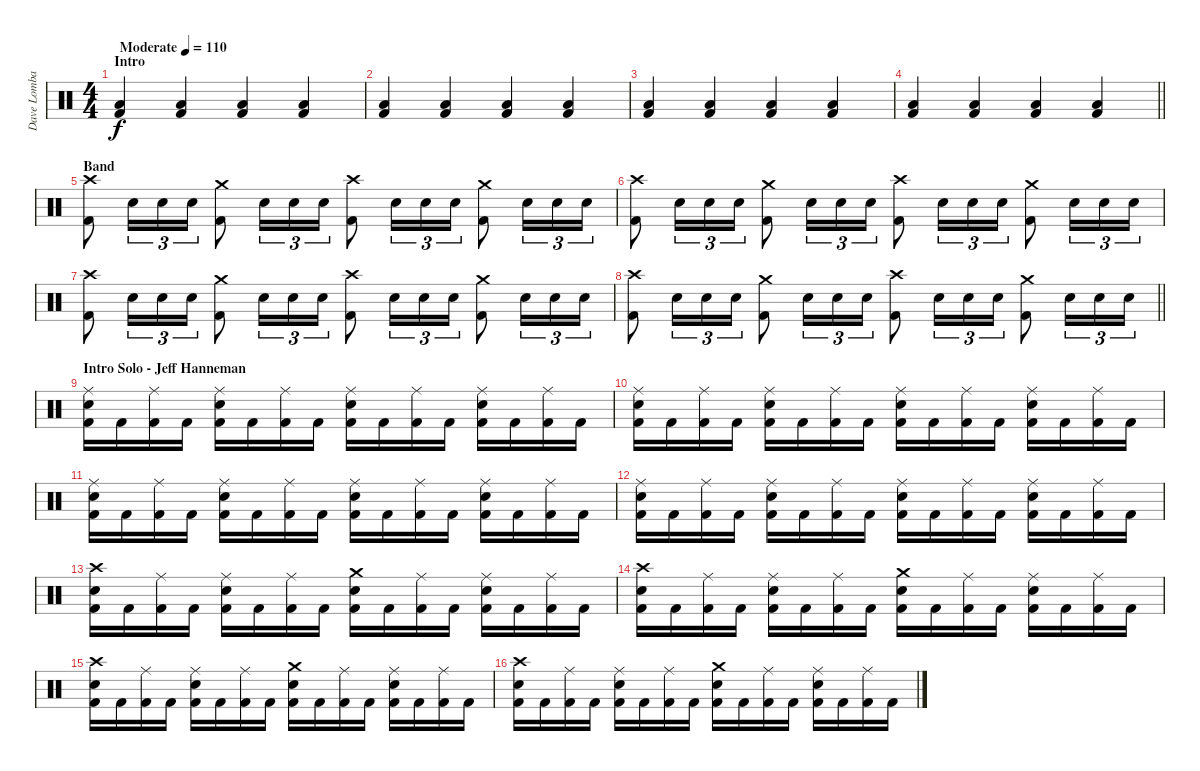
\track ("Dave Lombardo (Drums)" "Dave Lomba") {instrument percussion}
\staff {score}
\articulation defaults
\ts (4 4)
\section ("" "Intro")
\tempo (110 "Moderate")
\clef neutral
\ks c
("Low Tom (hit)" "Kick (hit) 2").4{dy f} ("Low Tom (hit)" "Kick (hit) 2").4 ("Low Tom (hit)" "Kick (hit) 2").4 ("Low Tom (hit)" "Kick (hit) 2").4 |
("Low Tom (hit)" "Kick (hit) 2").4 ("Low Tom (hit)" "Kick (hit) 2").4 ("Low Tom (hit)" "Kick (hit) 2").4 ("Low Tom (hit)" "Kick (hit) 2").4 |
("Low Tom (hit)" "Kick (hit) 2").4 ("Low Tom (hit)" "Kick (hit) 2").4 ("Low Tom (hit)" "Kick (hit) 2").4 ("Low Tom (hit)" "Kick (hit) 2").4 |
\barLineRight lightlight
("Low Tom (hit)" "Kick (hit) 2").4 ("Low Tom (hit)" "Kick (hit) 2").4 ("Low Tom (hit)" "Kick (hit) 2").4 ("Low Tom (hit)" "Kick (hit) 2").4 |
\section ("" "Band ")
("Crash high (hit)" "Kick (hit) 2").8 "Snare (hit) 2".16{tu (3 2)} "Snare (hit) 2".16{tu (3 2)} "Snare (hit) 2".16{tu (3 2)} ("Crash medium (hit)" "Kick (hit) 2").8 "Snare (hit) 2".16{tu (3 2)} "Snare (hit) 2".16{tu (3 2)} "Snare (hit) 2".16{tu (3 2)} ("Crash high (hit)" "Kick (hit) 2").8 "Snare (hit) 2".16{tu (3 2)} "Snare (hit) 2".16{tu (3 2)} "Snare (hit) 2".16{tu (3 2)} ("Crash medium (hit)" "Kick (hit) 2").8 "Snare (hit) 2".16{tu (3 2)} "Snare (hit) 2".16{tu (3 2)} "Snare (hit) 2".16{tu (3 2)} |
("Crash high (hit)" "Kick (hit) 2").8 "Snare (hit) 2".16{tu (3 2)} "Snare (hit) 2".16{tu (3 2)} "Snare (hit) 2".16{tu (3 2)} ("Crash medium (hit)" "Kick (hit) 2").8 "Snare (hit) 2".16{tu (3 2)} "Snare (hit) 2".16{tu (3 2)} "Snare (hit) 2".16{tu (3 2)} ("Crash high (hit)" "Kick (hit) 2").8 "Snare (hit) 2".16{tu (3 2)} "Snare (hit) 2".16{tu (3 2)} "Snare (hit) 2".16{tu (3 2)} ("Crash medium (hit)" "Kick (hit) 2").8 "Snare (hit) 2".16{tu (3 2)} "Snare (hit) 2".16{tu (3 2)} "Snare (hit) 2".16{tu (3 2)} |
("Crash high (hit)" "Kick (hit) 2").8 "Snare (hit) 2".16{tu (3 2)} "Snare (hit) 2".16{tu (3 2)} "Snare (hit) 2".16{tu (3 2)} ("Crash medium (hit)" "Kick (hit) 2").8 "Snare (hit) 2".16{tu (3 2)} "Snare (hit) 2".16{tu (3 2)} "Snare (hit) 2".16{tu (3 2)} ("Crash high (hit)" "Kick (hit) 2").8 "Snare (hit) 2".16{tu (3 2)} "Snare (hit) 2".16{tu (3 2)} "Snare (hit) 2".16{tu (3 2)} ("Crash medium (hit)" "Kick (hit) 2").8 "Snare (hit) 2".16{tu (3 2)} "Snare (hit) 2".16{tu (3 2)} "Snare (hit) 2".16{tu (3 2)} |
\barLineRight lightlight
("Crash high (hit)" "Kick (hit) 2").8 "Snare (hit) 2".16{tu (3 2)} "Snare (hit) 2".16{tu (3 2)} "Snare (hit) 2".16{tu (3 2)} ("Crash medium (hit)" "Kick (hit) 2").8 "Snare (hit) 2".16{tu (3 2)} "Snare (hit) 2".16{tu (3 2)} "Snare (hit) 2".16{tu (3 2)} ("Crash high (hit)" "Kick (hit) 2").8 "Snare (hit) 2".16{tu (3 2)} "Snare (hit) 2".16{tu (3 2)} "Snare (hit) 2".16{tu (3 2)} ("Crash medium (hit)" "Kick (hit) 2").8 "Snare (hit) 2".16{tu (3 2)} "Snare (hit) 2".16{tu (3 2)} "Snare (hit) 2".16{tu (3 2)} |
\section ("" "Intro Solo - Jeff Hanneman")
("Ride (middle)" "Snare (hit) 2" "Kick (hit) 2").16 "Kick (hit) 2".16 ("Ride (middle)" "Kick (hit) 2").16 "Kick (hit) 2".16 ("Ride (middle)" "Snare (hit) 2" "Kick (hit) 2").16 "Kick (hit) 2".16 ("Ride (middle)" "Kick (hit) 2").16 "Kick (hit) 2".16 ("Ride (middle)" "Snare (hit) 2" "Kick (hit) 2").16 "Kick (hit) 2".16 ("Ride (middle)" "Kick (hit) 2").16 "Kick (hit) 2".16 ("Ride (middle)" "Snare (hit) 2" "Kick (hit) 2").16 "Kick (hit) 2".16 ("Ride (middle)" "Kick (hit) 2").16 "Kick (hit) 2".16 |
("Ride (middle)" "Snare (hit) 2" "Kick (hit) 2").16 "Kick (hit) 2".16 ("Ride (middle)" "Kick (hit) 2").16 "Kick (hit) 2".16 ("Ride (middle)" "Snare (hit) 2" "Kick (hit) 2").16 "Kick (hit) 2".16 ("Ride (middle)" "Kick (hit) 2").16 "Kick (hit) 2".16 ("Ride (middle)" "Snare (hit) 2" "Kick (hit) 2").16 "Kick (hit) 2".16 ("Ride (middle)" "Kick (hit) 2").16 "Kick (hit) 2".16 ("Ride (middle)" "Snare (hit) 2" "Kick (hit) 2").16 "Kick (hit) 2".16 ("Ride (middle)" "Kick (hit) 2").16 "Kick (hit) 2".16 |
("Ride (middle)" "Snare (hit) 2" "Kick (hit) 2").16 "Kick (hit) 2".16 ("Ride (middle)" "Kick (hit) 2").16 "Kick (hit) 2".16 ("Ride (middle)" "Snare (hit) 2" "Kick (hit) 2").16 "Kick (hit) 2".16 ("Ride (middle)" "Kick (hit) 2").16 "Kick (hit) 2".16 ("Ride (middle)" "Snare (hit) 2" "Kick (hit) 2").16 "Kick (hit) 2".16 ("Ride (middle)" "Kick (hit) 2").16 "Kick (hit) 2".16 ("Ride (middle)" "Snare (hit) 2" "Kick (hit) 2").16 "Kick (hit) 2".16 ("Ride (middle)" "Kick (hit) 2").16 "Kick (hit) 2".16 |
("Ride (middle)" "Snare (hit) 2" "Kick (hit) 2").16 "Kick (hit) 2".16 ("Ride (middle)" "Kick (hit) 2").16 "Kick (hit) 2".16 ("Ride (middle)" "Snare (hit) 2" "Kick (hit) 2").16 "Kick (hit) 2".16 ("Ride (middle)" "Kick (hit) 2").16 "Kick (hit) 2".16 ("Ride (middle)" "Snare (hit) 2" "Kick (hit) 2").16 "Kick (hit) 2".16 ("Ride (middle)" "Kick (hit) 2").16 "Kick (hit) 2".16 ("Ride (middle)" "Snare (hit) 2" "Kick (hit) 2").16 "Kick (hit) 2".16 ("Ride (middle)" "Kick (hit) 2").16 "Kick (hit) 2".16 |
("Crash high (hit)" "Snare (hit) 2" "Kick (hit) 2").16 "Kick (hit) 2".16 ("Ride (middle)" "Kick (hit) 2").16 "Kick (hit) 2".16 ("Ride (middle)" "Snare (hit) 2" "Kick (hit) 2").16 "Kick (hit) 2".16 ("Ride (middle)" "Kick (hit) 2").16 "Kick (hit) 2".16 ("Crash medium (hit)" "Snare (hit) 2" "Kick (hit) 2").16 "Kick (hit) 2".16 ("Ride (middle)" "Kick (hit) 2").16 "Kick (hit) 2".16 ("Ride (middle)" "Snare (hit) 2" "Kick (hit) 2").16 "Kick (hit) 2".16 ("Ride (middle)" "Kick (hit) 2").16 "Kick (hit) 2".16 |
("Crash high (hit)" "Snare (hit) 2" "Kick (hit) 2").16 "Kick (hit) 2".16 ("Ride (middle)" "Kick (hit) 2").16 "Kick (hit) 2".16 ("Ride (middle)" "Snare (hit) 2" "Kick (hit) 2").16 "Kick (hit) 2".16 ("Ride (middle)" "Kick (hit) 2").16 "Kick (hit) 2".16 ("Crash medium (hit)" "Snare (hit) 2" "Kick (hit) 2").16 "Kick (hit) 2".16 ("Ride (middle)" "Kick (hit) 2").16 "Kick (hit) 2".16 ("Ride (middle)" "Snare (hit) 2" "Kick (hit) 2").16 "Kick (hit) 2".16 ("Ride (middle)" "Kick (hit) 2").16 "Kick (hit) 2".16 |
("Crash high (hit)" "Snare (hit) 2" "Kick (hit) 2").16 "Kick (hit) 2".16 ("Ride (middle)" "Kick (hit) 2").16 "Kick (hit) 2".16 ("Ride (middle)" "Snare (hit) 2" "Kick (hit) 2").16 "Kick (hit) 2".16 ("Ride (middle)" "Kick (hit) 2").16 "Kick (hit) 2".16 ("Crash medium (hit)" "Snare (hit) 2" "Kick (hit) 2").16 "Kick (hit) 2".16 ("Ride (middle)" "Kick (hit) 2").16 "Kick (hit) 2".16 ("Ride (middle)" "Snare (hit) 2" "Kick (hit) 2").16 "Kick (hit) 2".16 ("Ride (middle)" "Kick (hit) 2").16 "Kick (hit) 2".16 |
("Crash high (hit)" "Snare (hit) 2" "Kick (hit) 2").16 "Kick (hit) 2".16 ("Ride (middle)" "Kick (hit) 2").16 "Kick (hit) 2".16 ("Ride (middle)" "Snare (hit) 2" "Kick (hit) 2").16 "Kick (hit) 2".16 ("Ride (middle)" "Kick (hit) 2").16 "Kick (hit) 2".16 ("Crash medium (hit)" "Snare (hit) 2" "Kick (hit) 2").16 "Kick (hit) 2".16 ("Ride (middle)" "Kick (hit) 2").16 "Kick (hit) 2".16 ("Ride (middle)" "Snare (hit) 2" "Kick (hit) 2").16 "Kick (hit) 2".16 ("Ride (middle)" "Kick (hit) 2").16 "Kick (hit) 2".16
